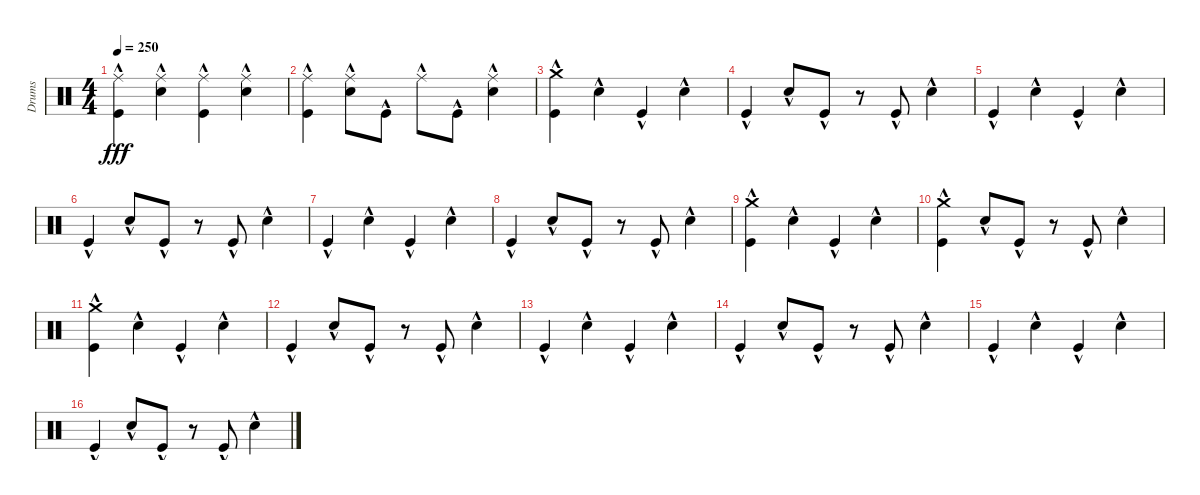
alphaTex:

\track ("Drums" "Drums") {instrument percussion}
\staff {score}
\articulation defaults
\ts (4 4)
\tempo 250
\clef neutral
\ks c
("Ride (middle)"{hac} "Kick (hit)"{hac}).4{dy fff} ("Ride (middle)"{hac} "Snare (hit) 2"{hac}).4 ("Ride (middle)"{hac} "Kick (hit)"{hac}).4 ("Ride (middle)"{hac} "Snare (hit) 2"{hac}).4 |
("Ride (middle)"{hac} "Kick (hit)"{hac}).4 ("Ride (middle)"{hac} "Snare (hit) 2"{hac}).8 "Kick (hit)"{hac}.8 "Ride (middle)"{hac}.8 "Kick (hit)"{hac}.8 ("Ride (middle)"{hac} "Snare (hit) 2"{hac}).4 |
("Crash medium (hit)"{hac} "Kick (hit)"{hac}).4 "Snare (hit) 2"{hac}.4 "Kick (hit)"{hac}.4 "Snare (hit) 2"{hac}.4 |
"Kick (hit)"{hac}.4 "Snare (hit) 2"{hac}.8 "Kick (hit)"{hac}.8 r.8 "Kick (hit)"{hac}.8 "Snare (hit) 2"{hac}.4 |
"Kick (hit)"{hac}.4 "Snare (hit) 2"{hac}.4 "Kick (hit)"{hac}.4 "Snare (hit) 2"{hac}.4 |
"Kick (hit)"{hac}.4 "Snare (hit) 2"{hac}.8 "Kick (hit)"{hac}.8 r.8 "Kick (hit)"{hac}.8 "Snare (hit) 2"{hac}.4 |
"Kick (hit)"{hac}.4 "Snare (hit) 2"{hac}.4 "Kick (hit)"{hac}.4 "Snare (hit) 2"{hac}.4 |
"Kick (hit)"{hac}.4 "Snare (hit) 2"{hac}.8 "Kick (hit)"{hac}.8 r.8 "Kick (hit)"{hac}.8 "Snare (hit) 2"{hac}.4 |
("Crash medium (hit)"{hac} "Kick (hit)"{hac}).4 "Snare (hit) 2"{hac}.4 "Kick (hit)"{hac}.4 "Snare (hit) 2"{hac}.4 |
("Crash medium (hit)" "Kick (hit)"{hac}).4 "Snare (hit) 2"{hac}.8 "Kick (hit)"{hac}.8 r.8 "Kick (hit)"{hac}.8 "Snare (hit) 2"{hac}.4 |
("Crash medium (hit)"{hac} "Kick (hit)"{hac}).4 "Snare (hit) 2"{hac}.4 "Kick (hit)"{hac}.4 "Snare (hit) 2"{hac}.4 |
"Kick (hit)"{hac}.4 "Snare (hit) 2"{hac}.8 "Kick (hit)"{hac}.8 r.8 "Kick (hit)"{hac}.8 "Snare (hit) 2"{hac}.4 |
"Kick (hit)"{hac}.4 "Snare (hit) 2"{hac}.4 "Kick (hit)"{hac}.4 "Snare (hit) 2"{hac}.4 |
"Kick (hit)"{hac}.4 "Snare (hit) 2"{hac}.8 "Kick (hit)"{hac}.8 r.8 "Kick (hit)"{hac}.8 "Snare (hit) 2"{hac}.4 |
"Kick (hit)"{hac}.4 "Snare (hit) 2"{hac}.4 "Kick (hit)"{hac}.4 "Snare (hit) 2"{hac}.4 |
"Kick (hit)"{hac}.4 "Snare (hit) 2"{hac}.8 "Kick (hit)"{hac}.8 r.8 "Kick (hit)"{hac}.8 "Snare (hit) 2"{hac}.4
